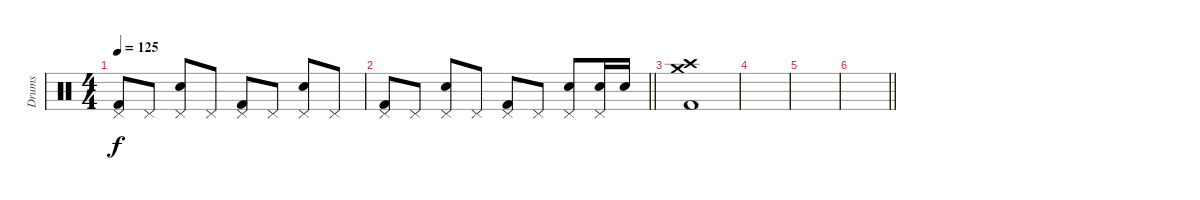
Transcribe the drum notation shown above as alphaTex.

\track ("Drums" "Drums") {instrument percussion}
\staff {score}
\articulation defaults
\ts (4 4)
\tempo 125
\clef neutral
\ks c
("Pedal Hi-Hat (hit)" "Kick (hit) 2").8{dy f} "Pedal Hi-Hat (hit)".8 ("Pedal Hi-Hat (hit)" "Electric Snare (hit)").8 "Pedal Hi-Hat (hit)".8 ("Pedal Hi-Hat (hit)" "Kick (hit) 2").8 "Pedal Hi-Hat (hit)".8 ("Pedal Hi-Hat (hit)" "Electric Snare (hit)").8 "Pedal Hi-Hat (hit)".8 |
\barLineRight lightlight
("Pedal Hi-Hat (hit)" "Kick (hit) 2").8 "Pedal Hi-Hat (hit)".8 ("Pedal Hi-Hat (hit)" "Electric Snare (hit)").8 "Pedal Hi-Hat (hit)".8 ("Pedal Hi-Hat (hit)" "Kick (hit) 2").8 "Pedal Hi-Hat (hit)".8 ("Pedal Hi-Hat (hit)" "Electric Snare (hit)").8 ("Pedal Hi-Hat (hit)" "Electric Snare (hit)").16 "Electric Snare (hit)".16 |
("Crash medium (hit)" "Crash high (hit)" "Kick (hit) 2").1 |
|
|
\barLineRight lightlight
